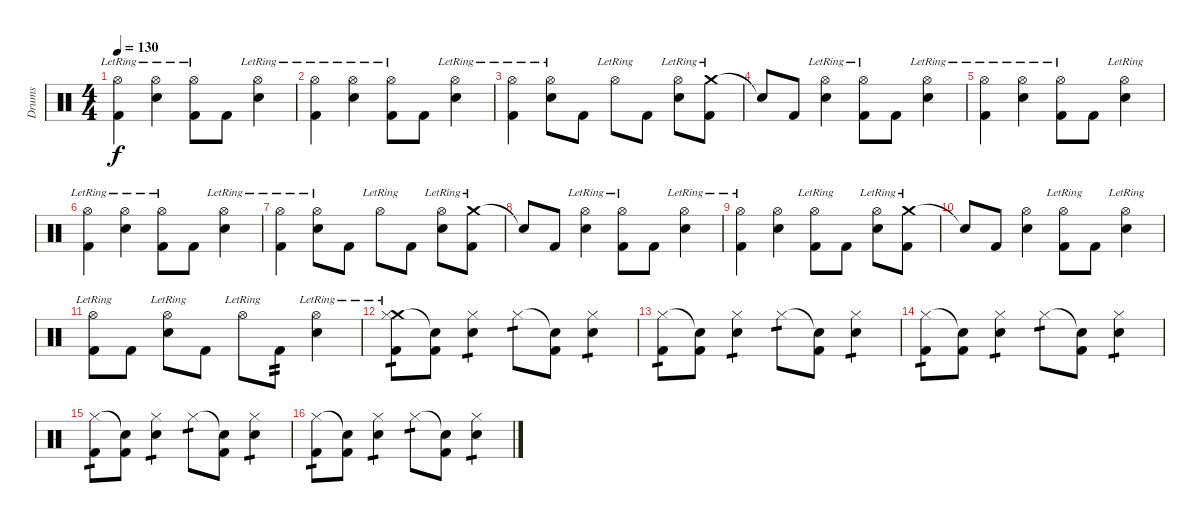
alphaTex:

\track ("Drums" "Drums") {instrument percussion}
\staff {score}
\articulation defaults
\ts (4 4)
\tempo 130
\clef neutral
\ks c
("Hi-Hat (open)"{lr} "Kick (hit) 2").4{dy f} ("Hi-Hat (open)"{lr} "Electric Snare (hit)").4 ("Hi-Hat (open)"{lr} "Kick (hit) 2").8 "Kick (hit) 2".8 ("Hi-Hat (open)"{lr} "Electric Snare (hit)").4 |
("Hi-Hat (open)"{lr} "Kick (hit) 2").4 ("Hi-Hat (open)"{lr} "Electric Snare (hit)").4 ("Hi-Hat (open)"{lr} "Kick (hit) 2").8 "Kick (hit) 2".8 ("Hi-Hat (open)"{lr} "Electric Snare (hit)").4 |
("Hi-Hat (open)"{lr} "Kick (hit) 2").4 ("Hi-Hat (open)"{lr} "Electric Snare (hit)").8 "Kick (hit) 2".8 "Hi-Hat (open)"{lr}.8 "Kick (hit) 2".8 ("Hi-Hat (open)"{lr} "Electric Snare (hit)").8 ("Crash medium (hit)"{lr} "Kick (hit) 2").8 |
"Snare (hit)"{t}.8 "Kick (hit) 2".8 ("Hi-Hat (open)"{lr} "Electric Snare (hit)").4 ("Hi-Hat (open)"{lr} "Kick (hit) 2").8 "Kick (hit) 2".8 ("Hi-Hat (open)"{lr} "Electric Snare (hit)").4 |
("Hi-Hat (open)"{lr} "Kick (hit) 2").4 ("Hi-Hat (open)"{lr} "Electric Snare (hit)").4 ("Hi-Hat (open)"{lr} "Kick (hit) 2").8 "Kick (hit) 2".8 ("Hi-Hat (open)"{lr} "Electric Snare (hit)").4 |
("Hi-Hat (open)"{lr} "Kick (hit) 2").4 ("Hi-Hat (open)"{lr} "Electric Snare (hit)").4 ("Hi-Hat (open)"{lr} "Kick (hit) 2").8 "Kick (hit) 2".8 ("Hi-Hat (open)"{lr} "Electric Snare (hit)").4 |
("Hi-Hat (open)"{lr} "Kick (hit) 2").4 ("Hi-Hat (open)"{lr} "Electric Snare (hit)").8 "Kick (hit) 2".8 "Hi-Hat (open)"{lr}.8 "Kick (hit) 2".8 ("Hi-Hat (open)"{lr} "Electric Snare (hit)").8 ("Crash medium (hit)"{lr} "Kick (hit) 2").8 |
"Snare (hit)"{t}.8 "Kick (hit) 2".8 ("Hi-Hat (open)"{lr} "Electric Snare (hit)").4 ("Hi-Hat (open)"{lr} "Kick (hit) 2").8 "Kick (hit) 2".8 ("Hi-Hat (open)"{lr} "Electric Snare (hit)").4 |
("Hi-Hat (open)"{lr} "Kick (hit) 2").4 ("Hi-Hat (open)" "Electric Snare (hit)").4 ("Hi-Hat (open)"{lr} "Kick (hit) 2").8 "Kick (hit) 2".8 ("Hi-Hat (open)"{lr} "Electric Snare (hit)").8 ("Crash medium (hit)"{lr} "Kick (hit) 2").8 |
"Snare (hit)"{t}.8 "Kick (hit) 2".8 ("Hi-Hat (open)" "Electric Snare (hit)").4 ("Hi-Hat (open)"{lr} "Kick (hit) 2").8 "Kick (hit) 2".8 ("Hi-Hat (open)"{lr} "Electric Snare (hit)").4 |
("Hi-Hat (open)"{lr} "Kick (hit) 2").8 "Kick (hit) 2".8 ("Hi-Hat (open)"{lr} "Electric Snare (hit)").8 "Kick (hit) 2".8 "Hi-Hat (open)"{lr}.8 "Kick (hit) 2".8{tp 2} ("Hi-Hat (open)"{lr} "Electric Snare (hit)").4 |
("Crash medium (hit)"{lr} "Hi-Hat (closed)" "Kick (hit) 2").8{tp 1} ("Snare (hit)"{t} "Kick (hit) 2").8 ("Hi-Hat (closed)" "Electric Snare (hit)").4{tp 1} "Hi-Hat (closed)".8{tp 1} ("Snare (hit)"{t} "Kick (hit) 2").8 ("Hi-Hat (closed)" "Electric Snare (hit)").4{tp 1} |
("Hi-Hat (closed)" "Kick (hit) 2").8{tp 1} ("Snare (hit)"{t} "Kick (hit) 2").8 ("Hi-Hat (closed)" "Electric Snare (hit)").4{tp 1} "Hi-Hat (closed)".8{tp 1} ("Snare (hit)"{t} "Kick (hit) 2").8 ("Hi-Hat (closed)" "Electric Snare (hit)").4{tp 1} |
("Hi-Hat (closed)" "Kick (hit) 2").8{tp 1} ("Snare (hit)"{t} "Kick (hit) 2").8 ("Hi-Hat (closed)" "Electric Snare (hit)").4{tp 1} "Hi-Hat (closed)".8{tp 1} ("Snare (hit)"{t} "Kick (hit) 2").8 ("Hi-Hat (closed)" "Electric Snare (hit)").4{tp 1} |
("Hi-Hat (closed)" "Kick (hit) 2").8{tp 1} ("Snare (hit)"{t} "Kick (hit) 2").8 ("Hi-Hat (closed)" "Electric Snare (hit)").4{tp 1} "Hi-Hat (closed)".8{tp 1} ("Snare (hit)"{t} "Kick (hit) 2").8 ("Hi-Hat (closed)" "Electric Snare (hit)").4{tp 1} |
("Hi-Hat (closed)" "Kick (hit) 2").8{tp 1} ("Snare (hit)"{t} "Kick (hit) 2").8 ("Hi-Hat (closed)" "Electric Snare (hit)").4{tp 1} "Hi-Hat (closed)".8{tp 1} ("Snare (hit)"{t} "Kick (hit) 2").8 ("Hi-Hat (closed)" "Electric Snare (hit)").4{tp 1}
